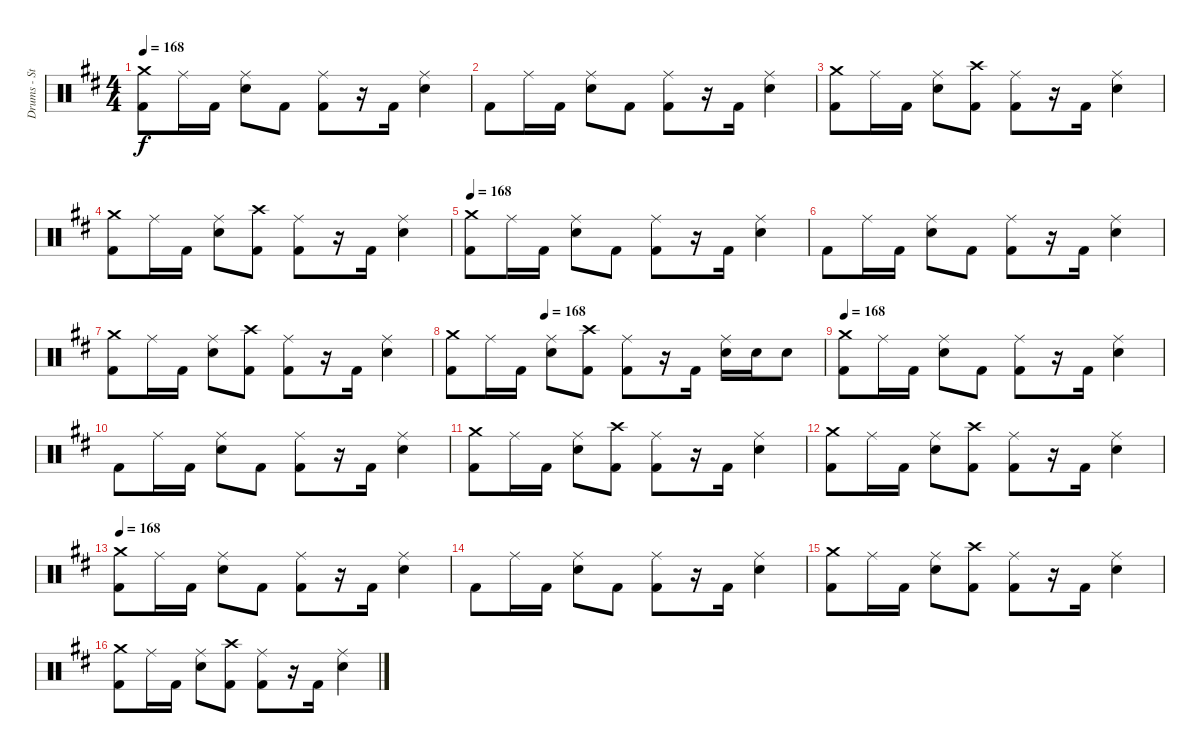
\track ("Drums - Steve Wacholz" "Drums - St") {instrument percussion}
\staff {score}
\articulation defaults
\ts (4 4)
\tempo 168
\clef neutral
\ks d
("Crash medium (hit)" "Kick (hit) 2").8{dy f} "Ride (middle)".16 "Kick (hit) 2".16 ("Ride (middle)" "Electric Snare (hit)").8 "Kick (hit) 2".8 ("Ride (middle)" "Kick (hit) 2").8 r.16 "Kick (hit) 2".16 ("Ride (middle)" "Electric Snare (hit)").4 |
"Kick (hit) 2".8 "Ride (middle)".16 "Kick (hit) 2".16 ("Ride (middle)" "Electric Snare (hit)").8 "Kick (hit) 2".8 ("Ride (middle)" "Kick (hit) 2").8 r.16 "Kick (hit) 2".16 ("Ride (middle)" "Electric Snare (hit)").4 |
("Crash medium (hit)" "Kick (hit) 2").8 "Ride (middle)".16 "Kick (hit) 2".16 ("Ride (middle)" "Electric Snare (hit)").8 ("Crash high (hit)" "Kick (hit) 2").8 ("Ride (middle)" "Kick (hit) 2").8 r.16 "Kick (hit) 2".16 ("Ride (middle)" "Electric Snare (hit)").4 |
("Crash medium (hit)" "Kick (hit) 2").8 "Ride (middle)".16 "Kick (hit) 2".16 ("Ride (middle)" "Electric Snare (hit)").8 ("Crash high (hit)" "Kick (hit) 2").8 ("Ride (middle)" "Kick (hit) 2").8 r.16 "Kick (hit) 2".16 ("Ride (middle)" "Electric Snare (hit)").4 |
\tempo 168
("Crash medium (hit)" "Kick (hit) 2").8 "Ride (middle)".16 "Kick (hit) 2".16 ("Ride (middle)" "Electric Snare (hit)").8 "Kick (hit) 2".8 ("Ride (middle)" "Kick (hit) 2").8 r.16 "Kick (hit) 2".16 ("Ride (middle)" "Electric Snare (hit)").4 |
"Kick (hit) 2".8 "Ride (middle)".16 "Kick (hit) 2".16 ("Ride (middle)" "Electric Snare (hit)").8 "Kick (hit) 2".8 ("Ride (middle)" "Kick (hit) 2").8 r.16 "Kick (hit) 2".16 ("Ride (middle)" "Electric Snare (hit)").4 |
("Crash medium (hit)" "Kick (hit) 2").8 "Ride (middle)".16 "Kick (hit) 2".16 ("Ride (middle)" "Electric Snare (hit)").8 ("Crash high (hit)" "Kick (hit) 2").8 ("Ride (middle)" "Kick (hit) 2").8 r.16 "Kick (hit) 2".16 ("Ride (middle)" "Electric Snare (hit)").4 |
\tempo (168 0.25)
("Crash medium (hit)" "Kick (hit) 2").8 "Ride (middle)".16 "Kick (hit) 2".16 ("Ride (middle)" "Electric Snare (hit)").8 ("Crash high (hit)" "Kick (hit) 2").8 ("Ride (middle)" "Kick (hit) 2").8 r.16 "Kick (hit) 2".16 ("Ride (middle)" "Electric Snare (hit)").16 "Electric Snare (hit)".16 "Electric Snare (hit)".8 |
\tempo 168
("Crash medium (hit)" "Kick (hit) 2").8 "Ride (middle)".16 "Kick (hit) 2".16 ("Ride (middle)" "Electric Snare (hit)").8 "Kick (hit) 2".8 ("Ride (middle)" "Kick (hit) 2").8 r.16 "Kick (hit) 2".16 ("Ride (middle)" "Electric Snare (hit)").4 |
"Kick (hit) 2".8 "Ride (middle)".16 "Kick (hit) 2".16 ("Ride (middle)" "Electric Snare (hit)").8 "Kick (hit) 2".8 ("Ride (middle)" "Kick (hit) 2").8 r.16 "Kick (hit) 2".16 ("Ride (middle)" "Electric Snare (hit)").4 |
("Crash medium (hit)" "Kick (hit) 2").8 "Ride (middle)".16 "Kick (hit) 2".16 ("Ride (middle)" "Electric Snare (hit)").8 ("Crash high (hit)" "Kick (hit) 2").8 ("Ride (middle)" "Kick (hit) 2").8 r.16 "Kick (hit) 2".16 ("Ride (middle)" "Electric Snare (hit)").4 |
("Crash medium (hit)" "Kick (hit) 2").8 "Ride (middle)".16 "Kick (hit) 2".16 ("Ride (middle)" "Electric Snare (hit)").8 ("Crash high (hit)" "Kick (hit) 2").8 ("Ride (middle)" "Kick (hit) 2").8 r.16 "Kick (hit) 2".16 ("Ride (middle)" "Electric Snare (hit)").4 |
\tempo 168
("Crash medium (hit)" "Kick (hit) 2").8 "Ride (middle)".16 "Kick (hit) 2".16 ("Ride (middle)" "Electric Snare (hit)").8 "Kick (hit) 2".8 ("Ride (middle)" "Kick (hit) 2").8 r.16 "Kick (hit) 2".16 ("Ride (middle)" "Electric Snare (hit)").4 |
"Kick (hit) 2".8 "Ride (middle)".16 "Kick (hit) 2".16 ("Ride (middle)" "Electric Snare (hit)").8 "Kick (hit) 2".8 ("Ride (middle)" "Kick (hit) 2").8 r.16 "Kick (hit) 2".16 ("Ride (middle)" "Electric Snare (hit)").4 |
("Crash medium (hit)" "Kick (hit) 2").8 "Ride (middle)".16 "Kick (hit) 2".16 ("Ride (middle)" "Electric Snare (hit)").8 ("Crash high (hit)" "Kick (hit) 2").8 ("Ride (middle)" "Kick (hit) 2").8 r.16 "Kick (hit) 2".16 ("Ride (middle)" "Electric Snare (hit)").4 |
("Crash medium (hit)" "Kick (hit) 2").8 "Ride (middle)".16 "Kick (hit) 2".16 ("Ride (middle)" "Electric Snare (hit)").8 ("Crash high (hit)" "Kick (hit) 2").8 ("Ride (middle)" "Kick (hit) 2").8 r.16 "Kick (hit) 2".16 ("Ride (middle)" "Electric Snare (hit)").4
